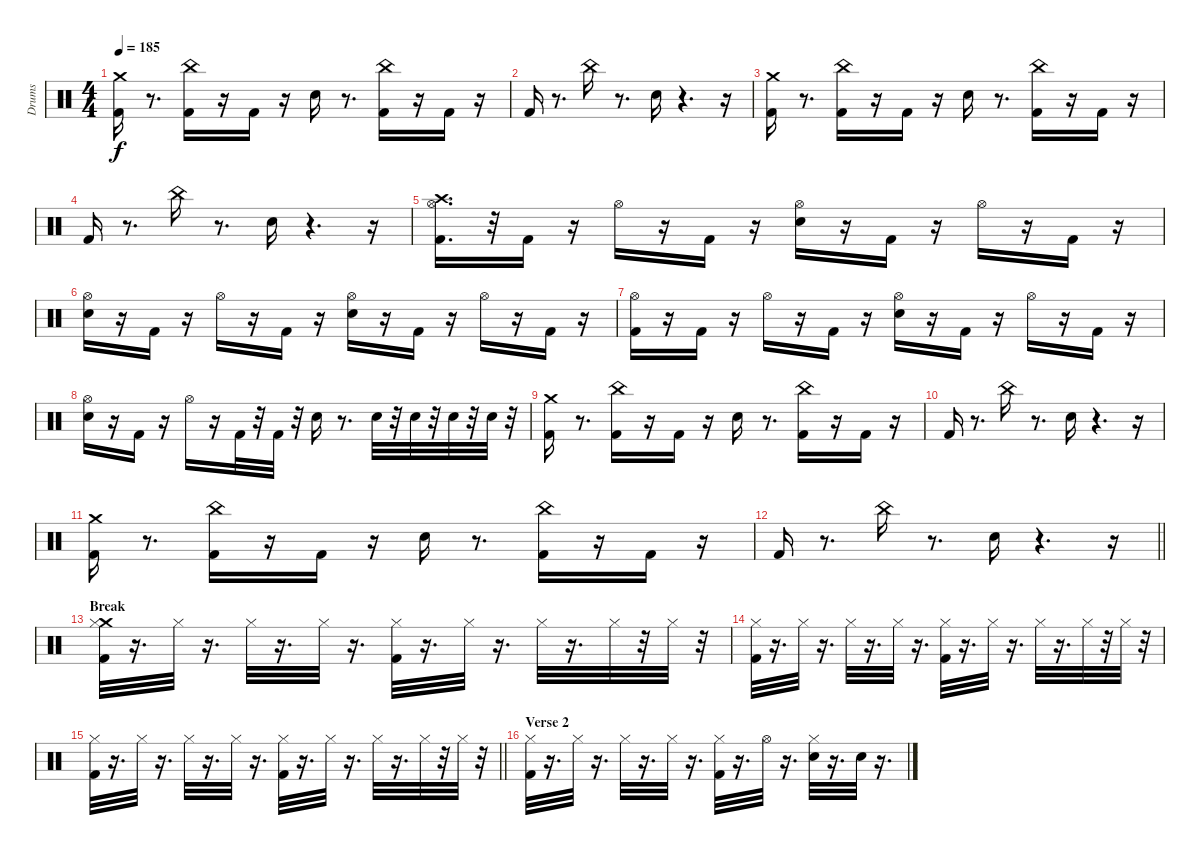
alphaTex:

\track ("Drums" "Drums") {instrument percussion}
\staff {score}
\articulation defaults
\ts (4 4)
\tempo 185
\clef neutral
\ks c
("Kick (hit) 2" "Crash medium (hit)").16{dy f} r.8{d} ("China (hit)" "Kick (hit) 2").16 r.16 "Kick (hit) 2".16 r.16 "Electric Snare (hit)".16 r.8{d} ("Kick (hit) 2" "China (hit)").16 r.16 "Kick (hit) 2".16 r.16 |
"Kick (hit) 2".16 r.8{d} "China (hit)".16 r.8{d} "Electric Snare (hit)".16 r.4{d} r.16 |
("Crash medium (hit)" "Kick (hit) 2").16 r.8{d} ("China (hit)" "Kick (hit) 2").16 r.16 "Kick (hit) 2".16 r.16 "Electric Snare (hit)".16 r.8{d} ("China (hit)" "Kick (hit) 2").16 r.16 "Kick (hit) 2".16 r.16 |
"Kick (hit) 2".16 r.8{d} "China (hit)".16 r.8{d} "Electric Snare (hit)".16 r.4{d} r.16 |
("Hi-Hat (open)" "Kick (hit) 2" "Crash high (hit)").16{d} r.32 "Kick (hit) 2".16 r.16 "Hi-Hat (open)".16 r.16 "Kick (hit) 2".16 r.16 ("Hi-Hat (open)" "Electric Snare (hit)").16 r.16 "Kick (hit) 2".16 r.16 "Hi-Hat (open)".16 r.16 "Kick (hit) 2".16 r.16 |
("Hi-Hat (open)" "Electric Snare (hit)").16 r.16 "Kick (hit) 2".16 r.16 "Hi-Hat (open)".16 r.16 "Kick (hit) 2".16 r.16 ("Hi-Hat (open)" "Electric Snare (hit)").16 r.16 "Kick (hit) 2".16 r.16 "Hi-Hat (open)".16 r.16 "Kick (hit) 2".16 r.16 |
("Hi-Hat (open)" "Kick (hit) 2").16 r.16 "Kick (hit) 2".16 r.16 "Hi-Hat (open)".16 r.16 "Kick (hit) 2".16 r.16 ("Hi-Hat (open)" "Electric Snare (hit)").16 r.16 "Kick (hit) 2".16 r.16 "Hi-Hat (open)".16 r.16 "Kick (hit) 2".16 r.16 |
("Electric Snare (hit)" "Hi-Hat (open)").16 r.16 "Kick (hit) 2".16 r.16 "Hi-Hat (open)".16 r.16 "Kick (hit) 2".32 r.32 "Kick (hit) 2".32 r.32 "Electric Snare (hit)".16 r.8{d} "Electric Snare (hit)".32 r.32 "Electric Snare (hit)".32 r.32 "Electric Snare (hit)".32 r.32 "Electric Snare (hit)".32 r.32 |
("Crash medium (hit)" "Kick (hit) 2").16 r.8{d} ("Kick (hit) 2" "China (hit)").16 r.16 "Kick (hit) 2".16 r.16 "Electric Snare (hit)".16 r.8{d} ("Kick (hit) 2" "China (hit)").16 r.16 "Kick (hit) 2".16 r.16 |
"Kick (hit) 2".16 r.8{d} "China (hit)".16 r.8{d} "Electric Snare (hit)".16 r.4{d} r.16 |
("Kick (hit) 2" "Crash medium (hit)").16 r.8{d} ("Kick (hit) 2" "China (hit)").16 r.16 "Kick (hit) 2".16 r.16 "Electric Snare (hit)".16 r.8{d} ("China (hit)" "Kick (hit) 2").16 r.16 "Kick (hit) 2".16 r.16 |
\barLineRight lightlight "Kick (hit) 2".16
r.8{d} "China (hit)".16 r.8{d} "Electric Snare (hit)".16 r.4{d} r.16 |
\section ("" "Break")
("Kick (hit) 2" "Crash medium (hit)" "Hi-Hat (closed)").32 r.16{d} "Hi-Hat (closed)".32 r.16{d} "Hi-Hat (closed)".32 r.16{d} "Hi-Hat (closed)".32 r.16{d} ("Kick (hit) 2" "Hi-Hat (closed)").32 r.16{d} "Hi-Hat (closed)".32 r.16{d} "Hi-Hat (closed)".32 r.16{d} "Hi-Hat (closed)".32 r.32 "Hi-Hat (closed)".32 r.32 |
("Kick (hit) 2" "Hi-Hat (closed)").32 r.16{d} "Hi-Hat (closed)".32 r.16{d} "Hi-Hat (closed)".32 r.16{d} "Hi-Hat (closed)".32 r.16{d} ("Kick (hit) 2" "Hi-Hat (closed)").32 r.16{d} "Hi-Hat (closed)".32 r.16{d} "Hi-Hat (closed)".32 r.16{d} "Hi-Hat (closed)".32 r.32 "Hi-Hat (closed)".32 r.32 |
\barLineRight lightlight
("Kick (hit) 2" "Hi-Hat (closed)").32 r.16{d} "Hi-Hat (closed)".32 r.16{d} "Hi-Hat (closed)".32 r.16{d} "Hi-Hat (closed)".32 r.16{d} ("Kick (hit) 2" "Hi-Hat (closed)").32 r.16{d} "Hi-Hat (closed)".32 r.16{d} "Hi-Hat (closed)".32 r.16{d} "Hi-Hat (closed)".32 r.32 "Hi-Hat (closed)".32 r.32 |
\section ("" "Verse 2")
("Kick (hit) 2" "Hi-Hat (closed)").32 r.16{d} "Hi-Hat (closed)".32 r.16{d} "Hi-Hat (closed)".32 r.16{d} "Hi-Hat (closed)".32 r.16{d} ("Kick (hit) 2" "Hi-Hat (closed)").32 r.16{d} "Hi-Hat (open)".32 r.16{d} ("Electric Snare (hit)" "Hi-Hat (closed)").32 r.16{d} "Electric Snare (hit)".32 r.16{d}
